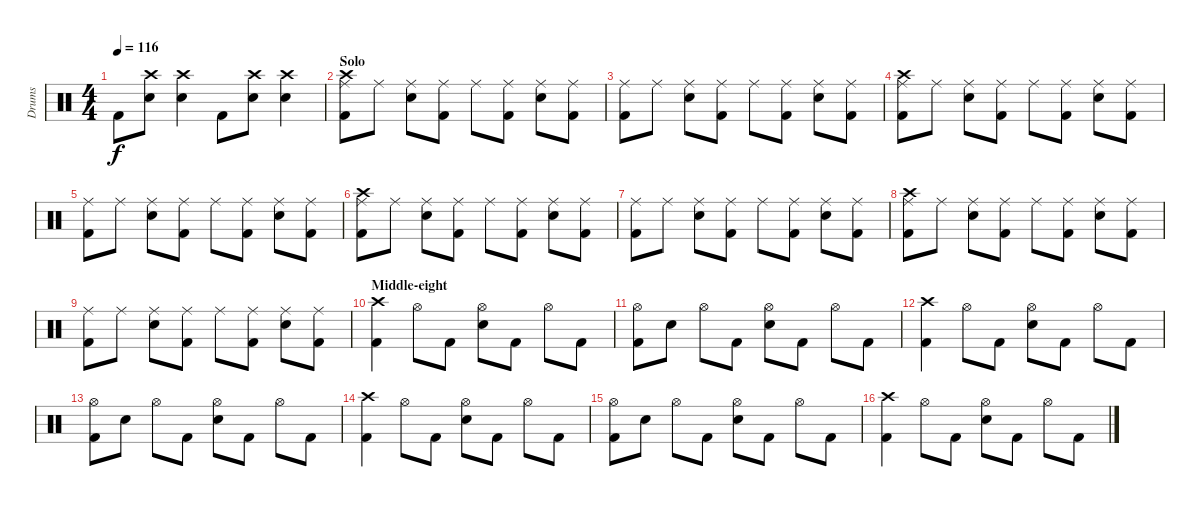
\track ("Drums" "Drums") {instrument percussion}
\staff {score}
\articulation defaults
\ts (4 4)
\tempo 116
\clef neutral
\ks c "Kick (hit) 2".8{dy f}
("Crash high (hit)" "Snare (hit) 2").8 ("Crash high (hit)" "Snare (hit) 2").4 "Kick (hit) 2".8 ("Crash high (hit)" "Snare (hit) 2").8 ("Crash high (hit)" "Snare (hit) 2").4 |
\section ("" "Solo")
("Crash high (hit)" "Ride (middle)" "Kick (hit) 2").8 "Ride (middle)".8 ("Ride (middle)" "Snare (hit) 2").8 ("Ride (middle)" "Kick (hit) 2").8 "Ride (middle)".8 ("Ride (middle)" "Kick (hit) 2").8 ("Ride (middle)" "Snare (hit) 2").8 ("Ride (middle)" "Kick (hit) 2").8 |
("Ride (middle)" "Kick (hit) 2").8 "Ride (middle)".8 ("Ride (middle)" "Snare (hit) 2").8 ("Ride (middle)" "Kick (hit) 2").8 "Ride (middle)".8 ("Ride (middle)" "Kick (hit) 2").8 ("Ride (middle)" "Snare (hit) 2").8 ("Ride (middle)" "Kick (hit) 2").8 |
("Crash high (hit)" "Ride (middle)" "Kick (hit) 2").8 "Ride (middle)".8 ("Ride (middle)" "Snare (hit) 2").8 ("Ride (middle)" "Kick (hit) 2").8 "Ride (middle)".8 ("Ride (middle)" "Kick (hit) 2").8 ("Ride (middle)" "Snare (hit) 2").8 ("Ride (middle)" "Kick (hit) 2").8 |
("Ride (middle)" "Kick (hit) 2").8 "Ride (middle)".8 ("Ride (middle)" "Snare (hit) 2").8 ("Ride (middle)" "Kick (hit) 2").8 "Ride (middle)".8 ("Ride (middle)" "Kick (hit) 2").8 ("Ride (middle)" "Snare (hit) 2").8 ("Ride (middle)" "Kick (hit) 2").8 |
("Crash high (hit)" "Ride (middle)" "Kick (hit) 2").8 "Ride (middle)".8 ("Ride (middle)" "Snare (hit) 2").8 ("Ride (middle)" "Kick (hit) 2").8 "Ride (middle)".8 ("Ride (middle)" "Kick (hit) 2").8 ("Ride (middle)" "Snare (hit) 2").8 ("Ride (middle)" "Kick (hit) 2").8 |
("Ride (middle)" "Kick (hit) 2").8 "Ride (middle)".8 ("Ride (middle)" "Snare (hit) 2").8 ("Ride (middle)" "Kick (hit) 2").8 "Ride (middle)".8 ("Ride (middle)" "Kick (hit) 2").8 ("Ride (middle)" "Snare (hit) 2").8 ("Ride (middle)" "Kick (hit) 2").8 |
("Crash high (hit)" "Ride (middle)" "Kick (hit) 2").8 "Ride (middle)".8 ("Ride (middle)" "Snare (hit) 2").8 ("Ride (middle)" "Kick (hit) 2").8 "Ride (middle)".8 ("Ride (middle)" "Kick (hit) 2").8 ("Ride (middle)" "Snare (hit) 2").8 ("Ride (middle)" "Kick (hit) 2").8 |
("Ride (middle)" "Kick (hit) 2").8 "Ride (middle)".8 ("Ride (middle)" "Snare (hit) 2").8 ("Ride (middle)" "Kick (hit) 2").8 "Ride (middle)".8 ("Ride (middle)" "Kick (hit) 2").8 ("Ride (middle)" "Snare (hit) 2").8 ("Ride (middle)" "Kick (hit) 2").8 |
\section ("" "Middle-eight")
("Crash high (hit)" "Kick (hit) 2").4 "Hi-Hat (open)".8 "Kick (hit) 2".8 ("Hi-Hat (open)" "Snare (hit) 2").8 "Kick (hit) 2".8 "Hi-Hat (open)".8 "Kick (hit) 2".8 |
("Hi-Hat (open)" "Kick (hit) 2").8 "Snare (hit) 2".8 "Hi-Hat (open)".8 "Kick (hit) 2".8 ("Hi-Hat (open)" "Snare (hit) 2").8 "Kick (hit) 2".8 "Hi-Hat (open)".8 "Kick (hit) 2".8 |
("Crash high (hit)" "Kick (hit) 2").4 "Hi-Hat (open)".8 "Kick (hit) 2".8 ("Hi-Hat (open)" "Snare (hit) 2").8 "Kick (hit) 2".8 "Hi-Hat (open)".8 "Kick (hit) 2".8 |
("Hi-Hat (open)" "Kick (hit) 2").8 "Snare (hit) 2".8 "Hi-Hat (open)".8 "Kick (hit) 2".8 ("Hi-Hat (open)" "Snare (hit) 2").8 "Kick (hit) 2".8 "Hi-Hat (open)".8 "Kick (hit) 2".8 |
("Crash high (hit)" "Kick (hit) 2").4 "Hi-Hat (open)".8 "Kick (hit) 2".8 ("Hi-Hat (open)" "Snare (hit) 2").8 "Kick (hit) 2".8 "Hi-Hat (open)".8 "Kick (hit) 2".8 |
("Hi-Hat (open)" "Kick (hit) 2").8 "Snare (hit) 2".8 "Hi-Hat (open)".8 "Kick (hit) 2".8 ("Hi-Hat (open)" "Snare (hit) 2").8 "Kick (hit) 2".8 "Hi-Hat (open)".8 "Kick (hit) 2".8 |
("Crash high (hit)" "Kick (hit) 2").4 "Hi-Hat (open)".8 "Kick (hit) 2".8 ("Hi-Hat (open)" "Snare (hit) 2").8 "Kick (hit) 2".8 "Hi-Hat (open)".8 "Kick (hit) 2".8
